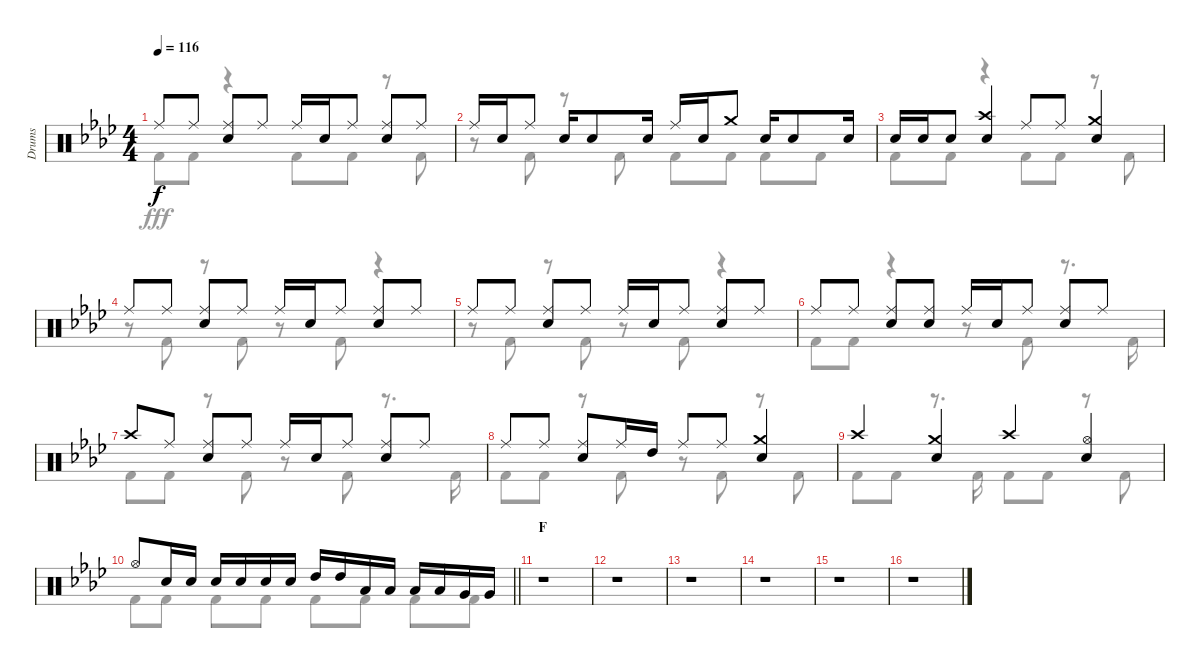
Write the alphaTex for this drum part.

\track ("Drums" "Drums") {instrument percussion}
\staff {score}
\articulation defaults
\voice
\ts (4 4)
\tempo 116
\clef neutral
\ks ab "Ride (middle)".8{dy f} "Ride (middle)".8
("Ride (middle)" "Snare (hit) 2").8 "Ride (middle)".8 "Ride (middle)".16 "Snare (hit) 2".16 "Ride (middle)".8 ("Ride (middle)" "Snare (hit) 2").8 "Ride (middle)".8 |
"Ride (middle)".16 "Snare (hit) 2".16 "Ride (middle)".8 "Snare (hit) 2".16 "Snare (hit) 2".8 "Snare (hit) 2".16 "Ride (middle)".16 "Snare (hit) 2".16 "Crash medium (hit)".8 "Snare (hit) 2".16 "Snare (hit) 2".8 "Snare (hit) 2".16 |
"Snare (hit) 2".16 "Snare (hit) 2".16 "Snare (hit) 2".8 ("Crash high (hit)" "Snare (hit) 2").4 "Ride (middle)".8 "Ride (middle)".8 ("Crash medium (hit)" "Snare (hit) 2").4 |
"Ride (middle)".8 "Ride (middle)".8 ("Ride (middle)" "Snare (hit) 2").8 "Ride (middle)".8 "Ride (middle)".16 "Snare (hit) 2".16 "Ride (middle)".8 ("Ride (middle)" "Snare (hit) 2").8 "Ride (middle)".8 |
"Ride (middle)".8 "Ride (middle)".8 ("Ride (middle)" "Snare (hit) 2").8 "Ride (middle)".8 "Ride (middle)".16 "Snare (hit) 2".16 "Ride (middle)".8 ("Ride (middle)" "Snare (hit) 2").8 "Ride (middle)".8 |
"Ride (middle)".8 "Ride (middle)".8 ("Ride (middle)" "Snare (hit) 2").8 ("Ride (middle)" "Snare (hit) 2").8 "Ride (middle)".16 "Snare (hit) 2".16 "Ride (middle)".8 ("Ride (middle)" "Snare (hit) 2").8 "Ride (middle)".8 |
"Crash high (hit)".8 "Ride (middle)".8 ("Ride (middle)" "Snare (hit) 2").8 "Ride (middle)".8 "Ride (middle)".16 "Snare (hit) 2".16 "Ride (middle)".8 ("Ride (middle)" "Snare (hit) 2").8 "Ride (middle)".8 |
"Ride (middle)".8 "Ride (middle)".8 ("Ride (middle)" "Snare (hit) 2").8 "Ride (middle)".16 "High Tom (hit)".16 "Ride (middle)".8 "Ride (middle)".8 ("Crash medium (hit)" "Snare (hit) 2").4 |
"Crash high (hit)".4 ("Crash medium (hit)" "Snare (hit) 2").4 "Crash high (hit)".4 ("Hi-Hat (open)" "Snare (hit) 2").4 |
\barLineRight lightlight "Hi-Hat (open)".8 "Snare (hit) 2".16 "Snare (hit) 2".16 "Snare (hit) 2".16 "Snare (hit) 2".16 "Snare (hit) 2".16 "Snare (hit) 2".16 "High Tom (hit)".16 "High Tom (hit)".16 "Low Tom (hit)".16 "Low Tom (hit)".16 "Low Tom (hit)".16 "Low Tom (hit)".16 "Very Low Tom (hit)".16 "Very Low Tom (hit)".16
|
\section ("" "F")
r.1 |
r.1 |
r.1 |
r.1 |
r.1 |
r.1
\voice
\clef neutral
\ottava regular
\simile none
\ks ab "Kick (hit) 2".8{dy fff} "Kick (hit) 2".8
r.4 "Kick (hit) 2".8 "Kick (hit) 2".8 r.8 "Kick (hit) 2".8 |
r.8 "Kick (hit) 2".8 r.8 "Kick (hit) 2".8 "Kick (hit) 2".8 "Kick (hit) 2".8 "Kick (hit) 2".8 "Kick (hit) 2".8 |
"Kick (hit) 2".8 "Kick (hit) 2".8 r.4 "Kick (hit) 2".8 "Kick (hit) 2".8 r.8 "Kick (hit) 2".8 |
r.8 "Kick (hit) 2".8 r.8 "Kick (hit) 2".8 r.8 "Kick (hit) 2".8 r.4 |
r.8 "Kick (hit) 2".8 r.8 "Kick (hit) 2".8 r.8 "Kick (hit) 2".8 r.4 |
"Kick (hit) 2".8 "Kick (hit) 2".8 r.4 r.8 "Kick (hit) 2".8 r.8{d} "Kick (hit) 2".16 |
"Kick (hit) 2".8 "Kick (hit) 2".8 r.8 "Kick (hit) 2".8 r.8 "Kick (hit) 2".8 r.8{d} "Kick (hit) 2".16 |
"Kick (hit) 2".8 "Kick (hit) 2".8 r.8 "Kick (hit) 2".8 r.8 "Kick (hit) 2".8 r.8 "Kick (hit) 2".8 |
"Kick (hit) 2".8 "Kick (hit) 2".8 r.8{d} "Kick (hit) 2".16 "Kick (hit) 2".8 "Kick (hit) 2".8 r.8 "Kick (hit) 2".8 |
\barLineRight lightlight "Kick (hit) 2".8 "Kick (hit) 2".8 "Kick (hit) 2".8 "Kick (hit) 2".8 "Kick (hit) 2".8 "Kick (hit) 2".8 "Kick (hit) 2".8 "Kick (hit) 2".8
|
r.1 |
r.1 |
r.1 |
r.1 |
r.1 |
r.1
